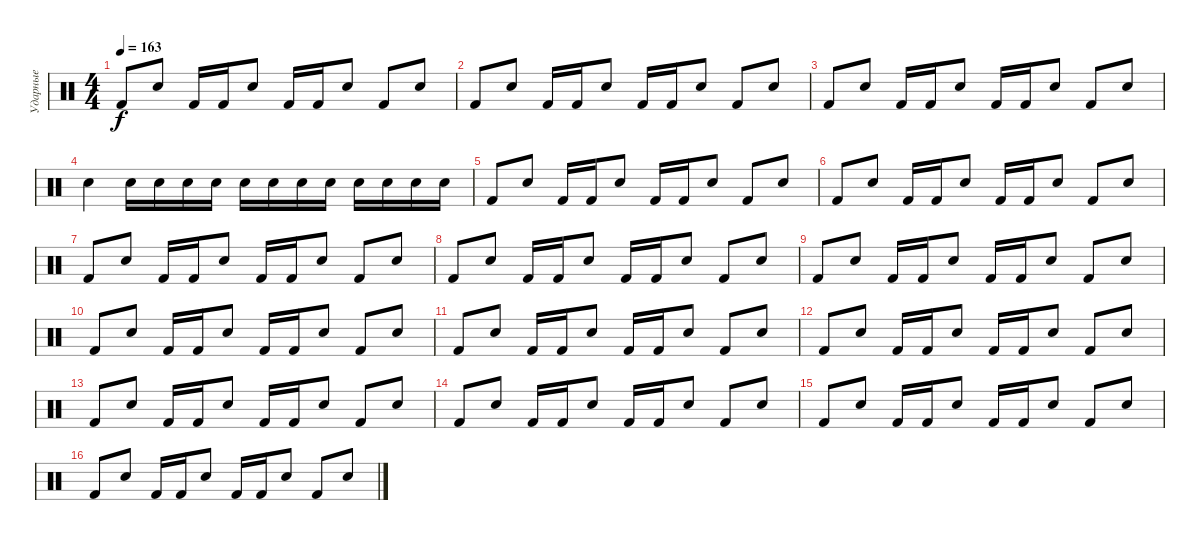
\track ("Ударные" "Ударные") {instrument percussion}
\staff {score}
\articulation defaults
\ts (4 4)
\tempo 163
\clef neutral
\ks c "Kick (hit) 2".8{dy f} "Electric Snare (hit)".8 "Kick (hit) 2".16 "Kick (hit) 2".16 "Electric Snare (hit)".8 "Kick (hit) 2".16 "Kick (hit) 2".16 "Electric Snare (hit)".8 "Kick (hit) 2".8 "Electric Snare (hit)".8
|
"Kick (hit) 2".8 "Electric Snare (hit)".8 "Kick (hit) 2".16 "Kick (hit) 2".16 "Electric Snare (hit)".8 "Kick (hit) 2".16 "Kick (hit) 2".16 "Electric Snare (hit)".8 "Kick (hit) 2".8 "Electric Snare (hit)".8 |
"Kick (hit) 2".8 "Electric Snare (hit)".8 "Kick (hit) 2".16 "Kick (hit) 2".16 "Electric Snare (hit)".8 "Kick (hit) 2".16 "Kick (hit) 2".16 "Electric Snare (hit)".8 "Kick (hit) 2".8 "Electric Snare (hit)".8 |
"Electric Snare (hit)".4 "Electric Snare (hit)".16 "Electric Snare (hit)".16 "Electric Snare (hit)".16 "Electric Snare (hit)".16 "Electric Snare (hit)".16 "Electric Snare (hit)".16 "Electric Snare (hit)".16 "Electric Snare (hit)".16 "Electric Snare (hit)".16 "Electric Snare (hit)".16 "Electric Snare (hit)".16 "Electric Snare (hit)".16 |
"Kick (hit) 2".8 "Electric Snare (hit)".8 "Kick (hit) 2".16 "Kick (hit) 2".16 "Electric Snare (hit)".8 "Kick (hit) 2".16 "Kick (hit) 2".16 "Electric Snare (hit)".8 "Kick (hit) 2".8 "Electric Snare (hit)".8 |
"Kick (hit) 2".8 "Electric Snare (hit)".8 "Kick (hit) 2".16 "Kick (hit) 2".16 "Electric Snare (hit)".8 "Kick (hit) 2".16 "Kick (hit) 2".16 "Electric Snare (hit)".8 "Kick (hit) 2".8 "Electric Snare (hit)".8 |
"Kick (hit) 2".8 "Electric Snare (hit)".8 "Kick (hit) 2".16 "Kick (hit) 2".16 "Electric Snare (hit)".8 "Kick (hit) 2".16 "Kick (hit) 2".16 "Electric Snare (hit)".8 "Kick (hit) 2".8 "Electric Snare (hit)".8 |
"Kick (hit) 2".8 "Electric Snare (hit)".8 "Kick (hit) 2".16 "Kick (hit) 2".16 "Electric Snare (hit)".8 "Kick (hit) 2".16 "Kick (hit) 2".16 "Electric Snare (hit)".8 "Kick (hit) 2".8 "Electric Snare (hit)".8 |
"Kick (hit) 2".8 "Electric Snare (hit)".8 "Kick (hit) 2".16 "Kick (hit) 2".16 "Electric Snare (hit)".8 "Kick (hit) 2".16 "Kick (hit) 2".16 "Electric Snare (hit)".8 "Kick (hit) 2".8 "Electric Snare (hit)".8 |
"Kick (hit) 2".8 "Electric Snare (hit)".8 "Kick (hit) 2".16 "Kick (hit) 2".16 "Electric Snare (hit)".8 "Kick (hit) 2".16 "Kick (hit) 2".16 "Electric Snare (hit)".8 "Kick (hit) 2".8 "Electric Snare (hit)".8 |
"Kick (hit) 2".8 "Electric Snare (hit)".8 "Kick (hit) 2".16 "Kick (hit) 2".16 "Electric Snare (hit)".8 "Kick (hit) 2".16 "Kick (hit) 2".16 "Electric Snare (hit)".8 "Kick (hit) 2".8 "Electric Snare (hit)".8 |
"Kick (hit) 2".8 "Electric Snare (hit)".8 "Kick (hit) 2".16 "Kick (hit) 2".16 "Electric Snare (hit)".8 "Kick (hit) 2".16 "Kick (hit) 2".16 "Electric Snare (hit)".8 "Kick (hit) 2".8 "Electric Snare (hit)".8 |
"Kick (hit) 2".8 "Electric Snare (hit)".8 "Kick (hit) 2".16 "Kick (hit) 2".16 "Electric Snare (hit)".8 "Kick (hit) 2".16 "Kick (hit) 2".16 "Electric Snare (hit)".8 "Kick (hit) 2".8 "Electric Snare (hit)".8 |
"Kick (hit) 2".8 "Electric Snare (hit)".8 "Kick (hit) 2".16 "Kick (hit) 2".16 "Electric Snare (hit)".8 "Kick (hit) 2".16 "Kick (hit) 2".16 "Electric Snare (hit)".8 "Kick (hit) 2".8 "Electric Snare (hit)".8 |
"Kick (hit) 2".8 "Electric Snare (hit)".8 "Kick (hit) 2".16 "Kick (hit) 2".16 "Electric Snare (hit)".8 "Kick (hit) 2".16 "Kick (hit) 2".16 "Electric Snare (hit)".8 "Kick (hit) 2".8 "Electric Snare (hit)".8 |
"Kick (hit) 2".8 "Electric Snare (hit)".8 "Kick (hit) 2".16 "Kick (hit) 2".16 "Electric Snare (hit)".8 "Kick (hit) 2".16 "Kick (hit) 2".16 "Electric Snare (hit)".8 "Kick (hit) 2".8 "Electric Snare (hit)".8
